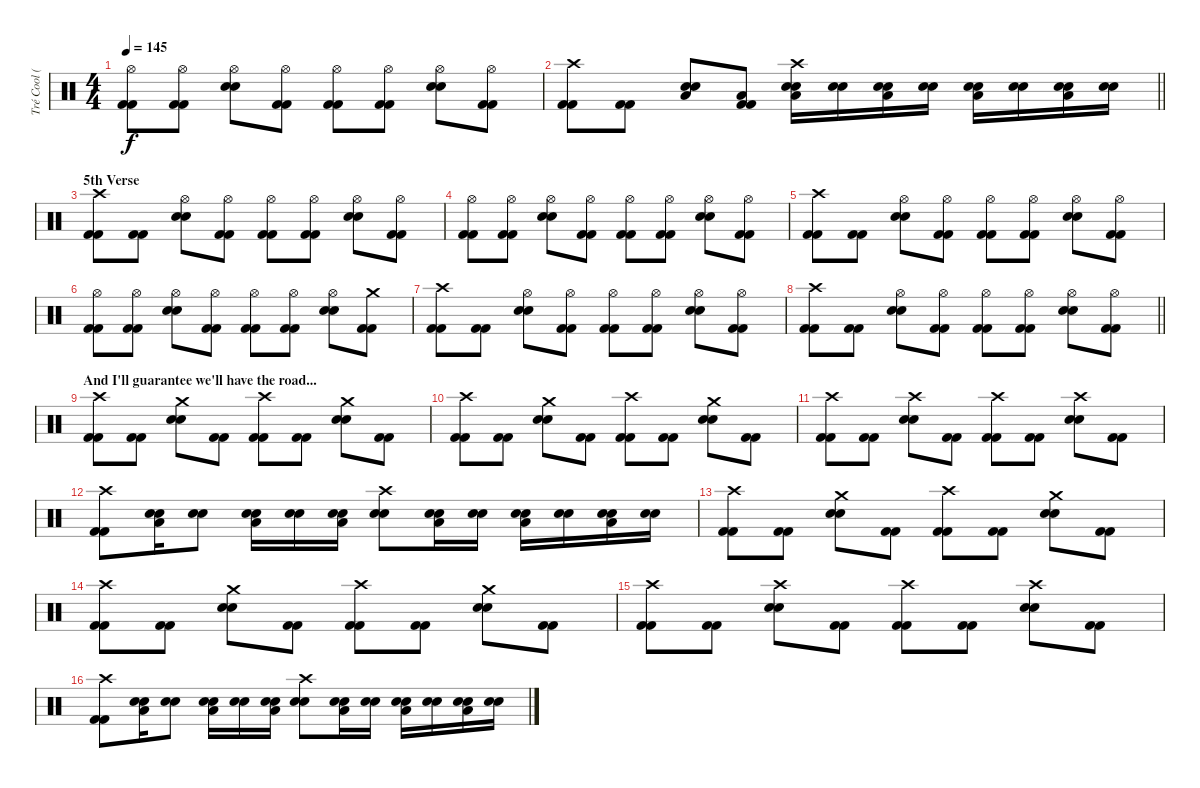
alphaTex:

\track ("Tré Cool (Drums)" "Tré Cool (") {instrument percussion}
\staff {score}
\articulation defaults
\ts (4 4)
\tempo 145
\clef neutral
\ks c
("Kick (hit) 2" "Kick (hit) 2" "Hi-Hat (open)").8{dy f} ("Kick (hit) 2" "Kick (hit) 2" "Hi-Hat (open)").8 ("Snare (hit) 2" "Snare (hit) 2" "Hi-Hat (open)").8 ("Kick (hit) 2" "Kick (hit) 2" "Hi-Hat (open)").8 ("Kick (hit) 2" "Kick (hit) 2" "Hi-Hat (open)").8 ("Kick (hit) 2" "Kick (hit) 2" "Hi-Hat (open)").8 ("Snare (hit) 2" "Snare (hit) 2" "Hi-Hat (open)").8 ("Kick (hit) 2" "Kick (hit) 2" "Hi-Hat (open)").8 |
\barLineRight lightlight
("Kick (hit) 2" "Kick (hit) 2" "Crash high (hit)").8 ("Kick (hit) 2" "Kick (hit) 2").8 ("Snare (hit) 2" "Snare (hit) 2" "Low Tom (hit)").8 ("Kick (hit) 2" "Kick (hit) 2" "Low Tom (hit)").8 ("Electric Snare (hit)" "Electric Snare (hit)" "Low Floor Tom (hit)" "Crash high (hit)").16 ("Snare (hit) 2" "Snare (hit) 2").16 ("Electric Snare (hit)" "Electric Snare (hit)" "Low Floor Tom (hit)").16 ("Snare (hit) 2" "Snare (hit) 2").16 ("Electric Snare (hit)" "Electric Snare (hit)" "Low Floor Tom (hit)").16 ("Snare (hit) 2" "Snare (hit) 2").16 ("Electric Snare (hit)" "Electric Snare (hit)" "Low Floor Tom (hit)").16 ("Snare (hit) 2" "Snare (hit) 2").16 |
\section ("" "5th Verse")
("Kick (hit) 2" "Kick (hit) 2" "Crash high (hit)").8 ("Kick (hit) 2" "Kick (hit) 2").8 ("Snare (hit) 2" "Snare (hit) 2" "Hi-Hat (open)").8 ("Kick (hit) 2" "Kick (hit) 2" "Hi-Hat (open)").8 ("Kick (hit) 2" "Kick (hit) 2" "Hi-Hat (open)").8 ("Kick (hit) 2" "Kick (hit) 2" "Hi-Hat (open)").8 ("Snare (hit) 2" "Snare (hit) 2" "Hi-Hat (open)").8 ("Kick (hit) 2" "Kick (hit) 2" "Hi-Hat (open)").8 |
("Kick (hit) 2" "Kick (hit) 2" "Hi-Hat (open)").8 ("Kick (hit) 2" "Kick (hit) 2" "Hi-Hat (open)").8 ("Snare (hit) 2" "Snare (hit) 2" "Hi-Hat (open)").8 ("Kick (hit) 2" "Kick (hit) 2" "Hi-Hat (open)").8 ("Kick (hit) 2" "Kick (hit) 2" "Hi-Hat (open)").8 ("Kick (hit) 2" "Kick (hit) 2" "Hi-Hat (open)").8 ("Snare (hit) 2" "Snare (hit) 2" "Hi-Hat (open)").8 ("Kick (hit) 2" "Kick (hit) 2" "Hi-Hat (open)").8 |
("Kick (hit) 2" "Kick (hit) 2" "Crash high (hit)").8 ("Kick (hit) 2" "Kick (hit) 2").8 ("Snare (hit) 2" "Snare (hit) 2" "Hi-Hat (open)").8 ("Kick (hit) 2" "Kick (hit) 2" "Hi-Hat (open)").8 ("Kick (hit) 2" "Kick (hit) 2" "Hi-Hat (open)").8 ("Kick (hit) 2" "Kick (hit) 2" "Hi-Hat (open)").8 ("Snare (hit) 2" "Snare (hit) 2" "Hi-Hat (open)").8 ("Kick (hit) 2" "Kick (hit) 2" "Hi-Hat (open)").8 |
("Kick (hit) 2" "Kick (hit) 2" "Hi-Hat (open)").8 ("Kick (hit) 2" "Kick (hit) 2" "Hi-Hat (open)").8 ("Snare (hit) 2" "Snare (hit) 2" "Hi-Hat (open)").8 ("Kick (hit) 2" "Kick (hit) 2" "Hi-Hat (open)").8 ("Kick (hit) 2" "Kick (hit) 2" "Hi-Hat (open)").8 ("Kick (hit) 2" "Kick (hit) 2" "Hi-Hat (open)").8 ("Snare (hit) 2" "Snare (hit) 2" "Hi-Hat (open)").8 ("Kick (hit) 2" "Kick (hit) 2" "Crash medium (hit)").8 |
("Kick (hit) 2" "Kick (hit) 2" "Crash high (hit)").8 ("Kick (hit) 2" "Kick (hit) 2").8 ("Snare (hit) 2" "Snare (hit) 2" "Hi-Hat (open)").8 ("Kick (hit) 2" "Kick (hit) 2" "Hi-Hat (open)").8 ("Kick (hit) 2" "Kick (hit) 2" "Hi-Hat (open)").8 ("Kick (hit) 2" "Kick (hit) 2" "Hi-Hat (open)").8 ("Snare (hit) 2" "Snare (hit) 2" "Hi-Hat (open)").8 ("Kick (hit) 2" "Kick (hit) 2" "Hi-Hat (open)").8 |
\barLineRight lightlight
("Kick (hit) 2" "Kick (hit) 2" "Crash high (hit)").8 ("Kick (hit) 2" "Kick (hit) 2").8 ("Snare (hit) 2" "Snare (hit) 2" "Hi-Hat (open)").8 ("Kick (hit) 2" "Kick (hit) 2" "Hi-Hat (open)").8 ("Kick (hit) 2" "Kick (hit) 2" "Hi-Hat (open)").8 ("Kick (hit) 2" "Kick (hit) 2" "Hi-Hat (open)").8 ("Snare (hit) 2" "Snare (hit) 2" "Hi-Hat (open)").8 ("Kick (hit) 2" "Kick (hit) 2" "Hi-Hat (open)").8 |
\section ("" "And I'll guarantee we'll have the road...")
("Kick (hit) 2" "Kick (hit) 2" "Crash high (hit)").8 ("Kick (hit) 2" "Kick (hit) 2").8 ("Snare (hit) 2" "Snare (hit) 2" "Crash medium (hit)").8 ("Kick (hit) 2" "Kick (hit) 2").8 ("Kick (hit) 2" "Kick (hit) 2" "Crash high (hit)").8 ("Kick (hit) 2" "Kick (hit) 2").8 ("Snare (hit) 2" "Snare (hit) 2" "Crash medium (hit)").8 ("Kick (hit) 2" "Kick (hit) 2").8 |
("Kick (hit) 2" "Kick (hit) 2" "Crash high (hit)").8 ("Kick (hit) 2" "Kick (hit) 2").8 ("Snare (hit) 2" "Snare (hit) 2" "Crash medium (hit)").8 ("Kick (hit) 2" "Kick (hit) 2").8 ("Kick (hit) 2" "Kick (hit) 2" "Crash high (hit)").8 ("Kick (hit) 2" "Kick (hit) 2").8 ("Snare (hit) 2" "Snare (hit) 2" "Crash medium (hit)").8 ("Kick (hit) 2" "Kick (hit) 2").8 |
("Kick (hit) 2" "Kick (hit) 2" "Crash high (hit)").8 ("Kick (hit) 2" "Kick (hit) 2").8 ("Snare (hit) 2" "Snare (hit) 2" "Crash high (hit)").8 ("Kick (hit) 2" "Kick (hit) 2").8 ("Kick (hit) 2" "Kick (hit) 2" "Crash high (hit)").8 ("Kick (hit) 2" "Kick (hit) 2").8 ("Snare (hit) 2" "Snare (hit) 2" "Crash high (hit)").8 ("Kick (hit) 2" "Kick (hit) 2").8 |
("Kick (hit) 2" "Kick (hit) 2" "Crash high (hit)").8 ("Electric Snare (hit)" "Electric Snare (hit)" "Low Floor Tom (hit)").16 ("Snare (hit) 2" "Snare (hit) 2").8 ("Electric Snare (hit)" "Electric Snare (hit)" "Low Floor Tom (hit)").16 ("Snare (hit) 2" "Snare (hit) 2").16 ("Electric Snare (hit)" "Electric Snare (hit)" "Low Floor Tom (hit)").16 ("Snare (hit) 2" "Snare (hit) 2" "Crash high (hit)").8 ("Electric Snare (hit)" "Electric Snare (hit)" "Low Floor Tom (hit)").16 ("Snare (hit) 2" "Snare (hit) 2").16 ("Electric Snare (hit)" "Electric Snare (hit)" "Low Floor Tom (hit)").16 ("Snare (hit) 2" "Snare (hit) 2").16 ("Electric Snare (hit)" "Electric Snare (hit)" "Low Floor Tom (hit)").16 ("Snare (hit) 2" "Snare (hit) 2").16 |
("Kick (hit) 2" "Kick (hit) 2" "Crash high (hit)").8 ("Kick (hit) 2" "Kick (hit) 2").8 ("Snare (hit) 2" "Snare (hit) 2" "Crash medium (hit)").8 ("Kick (hit) 2" "Kick (hit) 2").8 ("Kick (hit) 2" "Kick (hit) 2" "Crash high (hit)").8 ("Kick (hit) 2" "Kick (hit) 2").8 ("Snare (hit) 2" "Snare (hit) 2" "Crash medium (hit)").8 ("Kick (hit) 2" "Kick (hit) 2").8 |
("Kick (hit) 2" "Kick (hit) 2" "Crash high (hit)").8 ("Kick (hit) 2" "Kick (hit) 2").8 ("Snare (hit) 2" "Snare (hit) 2" "Crash medium (hit)").8 ("Kick (hit) 2" "Kick (hit) 2").8 ("Kick (hit) 2" "Kick (hit) 2" "Crash high (hit)").8 ("Kick (hit) 2" "Kick (hit) 2").8 ("Snare (hit) 2" "Snare (hit) 2" "Crash medium (hit)").8 ("Kick (hit) 2" "Kick (hit) 2").8 |
("Kick (hit) 2" "Kick (hit) 2" "Crash high (hit)").8 ("Kick (hit) 2" "Kick (hit) 2").8 ("Snare (hit) 2" "Snare (hit) 2" "Crash high (hit)").8 ("Kick (hit) 2" "Kick (hit) 2").8 ("Kick (hit) 2" "Kick (hit) 2" "Crash high (hit)").8 ("Kick (hit) 2" "Kick (hit) 2").8 ("Snare (hit) 2" "Snare (hit) 2" "Crash high (hit)").8 ("Kick (hit) 2" "Kick (hit) 2").8 |
("Kick (hit) 2" "Kick (hit) 2" "Crash high (hit)").8 ("Electric Snare (hit)" "Electric Snare (hit)" "Low Floor Tom (hit)").16 ("Snare (hit) 2" "Snare (hit) 2").8 ("Electric Snare (hit)" "Electric Snare (hit)" "Low Floor Tom (hit)").16 ("Snare (hit) 2" "Snare (hit) 2").16 ("Electric Snare (hit)" "Electric Snare (hit)" "Low Floor Tom (hit)").16 ("Snare (hit) 2" "Snare (hit) 2" "Crash high (hit)").8 ("Electric Snare (hit)" "Electric Snare (hit)" "Low Floor Tom (hit)").16 ("Snare (hit) 2" "Snare (hit) 2").16 ("Electric Snare (hit)" "Electric Snare (hit)" "Low Floor Tom (hit)").16 ("Snare (hit) 2" "Snare (hit) 2").16 ("Electric Snare (hit)" "Electric Snare (hit)" "Low Floor Tom (hit)").16 ("Snare (hit) 2" "Snare (hit) 2").16
